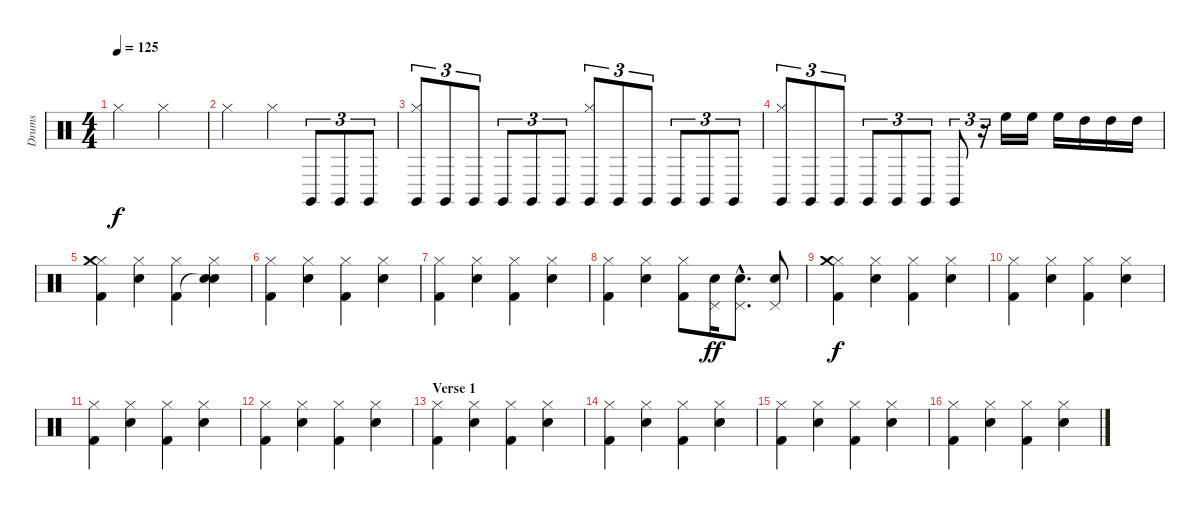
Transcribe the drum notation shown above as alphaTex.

\track ("Drums" "Drums") {instrument percussion}
\staff {score}
\articulation defaults
\ts (4 4)
\tempo 125
\clef neutral
\ks c "Hi-Hat (closed)".2{dy f} "Hi-Hat (closed)".2
|
"Hi-Hat (closed)".2 "Hi-Hat (closed)".4 "Claves (hit)".8{tu (3 2)} "Claves (hit)".8{tu (3 2)} "Claves (hit)".8{tu (3 2)} |
("Claves (hit)" "Hi-Hat (closed)").8{tu (3 2)} "Claves (hit)".8{tu (3 2)} "Claves (hit)".8{tu (3 2)} "Claves (hit)".8{tu (3 2)} "Claves (hit)".8{tu (3 2)} "Claves (hit)".8{tu (3 2)} ("Claves (hit)" "Hi-Hat (closed)").8{tu (3 2)} "Claves (hit)".8{tu (3 2)} "Claves (hit)".8{tu (3 2)} "Claves (hit)".8{tu (3 2)} "Claves (hit)".8{tu (3 2)} "Claves (hit)".8{tu (3 2)} |
("Claves (hit)" "Hi-Hat (closed)").8{tu (3 2)} "Claves (hit)".8{tu (3 2)} "Claves (hit)".8{tu (3 2)} "Claves (hit)".8{tu (3 2)} "Claves (hit)".8{tu (3 2)} "Claves (hit)".8{tu (3 2)} "Claves (hit)".8{tu (3 2)} r.16{tu (3 2)} "High Floor Tom (hit)".16 "High Floor Tom (hit)".16 "High Floor Tom (hit)".16 "High Tom (hit)".16 "High Tom (hit)".16 "High Tom (hit)".16 |
("Hi-Hat (closed)" "Crash medium (hit)" "Kick (hit) 2").4 ("Hi-Hat (closed)" "Electric Snare (hit)").4 ("Hi-Hat (closed)" "Kick (hit) 2").4 ("Hi-Hat (closed)" "Snare (hit)"{t} "Electric Snare (hit)").4 |
("Hi-Hat (closed)" "Kick (hit) 2").4 ("Hi-Hat (closed)" "Electric Snare (hit)").4 ("Hi-Hat (closed)" "Kick (hit) 2").4 ("Hi-Hat (closed)" "Electric Snare (hit)").4 |
("Hi-Hat (closed)" "Kick (hit) 2").4 ("Hi-Hat (closed)" "Electric Snare (hit)").4 ("Hi-Hat (closed)" "Kick (hit) 2").4 ("Hi-Hat (closed)" "Electric Snare (hit)").4 |
("Hi-Hat (closed)" "Kick (hit) 2").4 ("Hi-Hat (closed)" "Electric Snare (hit)").4 ("Hi-Hat (closed)" "Kick (hit) 2").8 ("Pedal Hi-Hat (hit)" "Electric Snare (hit)").16{dy ff} ("Pedal Hi-Hat (hit)"{hac} "Electric Snare (hit)"{hac}).8{d} ("Pedal Hi-Hat (hit)" "Electric Snare (hit)").8 |
("Hi-Hat (closed)" "Crash medium (hit)" "Kick (hit) 2").4{dy f} ("Hi-Hat (closed)" "Electric Snare (hit)").4 ("Hi-Hat (closed)" "Kick (hit) 2").4 ("Hi-Hat (closed)" "Electric Snare (hit)").4 |
("Hi-Hat (closed)" "Kick (hit) 2").4 ("Hi-Hat (closed)" "Electric Snare (hit)").4 ("Hi-Hat (closed)" "Kick (hit) 2").4 ("Hi-Hat (closed)" "Electric Snare (hit)").4 |
("Hi-Hat (closed)" "Kick (hit) 2").4 ("Hi-Hat (closed)" "Electric Snare (hit)").4 ("Hi-Hat (closed)" "Kick (hit) 2").4 ("Hi-Hat (closed)" "Electric Snare (hit)").4 |
("Hi-Hat (closed)" "Kick (hit) 2").4 ("Hi-Hat (closed)" "Electric Snare (hit)").4 ("Hi-Hat (closed)" "Kick (hit) 2").4 ("Hi-Hat (closed)" "Electric Snare (hit)").4 |
\section ("" "Verse 1")
("Hi-Hat (closed)" "Kick (hit) 2").4 ("Hi-Hat (closed)" "Electric Snare (hit)").4 ("Hi-Hat (closed)" "Kick (hit) 2").4 ("Hi-Hat (closed)" "Electric Snare (hit)").4 |
("Hi-Hat (closed)" "Kick (hit) 2").4 ("Hi-Hat (closed)" "Electric Snare (hit)").4 ("Hi-Hat (closed)" "Kick (hit) 2").4 ("Hi-Hat (closed)" "Electric Snare (hit)").4 |
("Hi-Hat (closed)" "Kick (hit) 2").4 ("Hi-Hat (closed)" "Electric Snare (hit)").4 ("Hi-Hat (closed)" "Kick (hit) 2").4 ("Hi-Hat (closed)" "Electric Snare (hit)").4 |
("Hi-Hat (closed)" "Kick (hit) 2").4 ("Hi-Hat (closed)" "Electric Snare (hit)").4 ("Hi-Hat (closed)" "Kick (hit) 2").4 ("Hi-Hat (closed)" "Electric Snare (hit)").4
